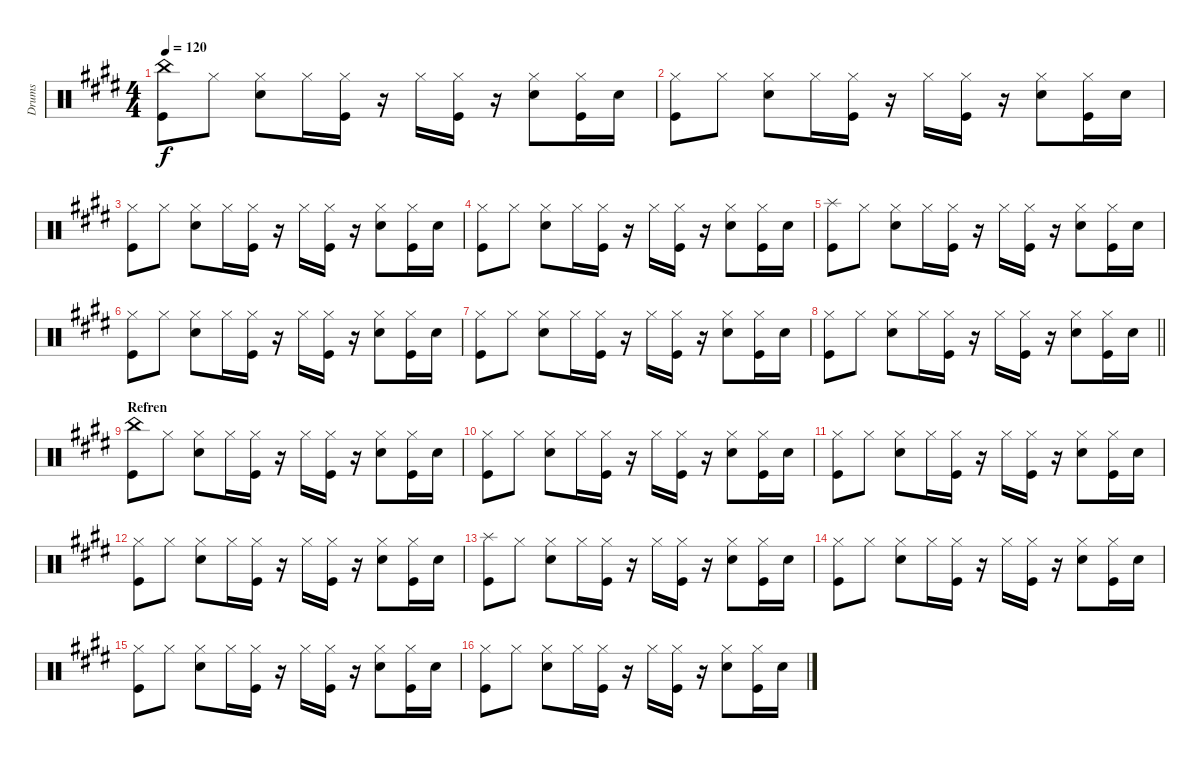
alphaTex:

\track ("Drums" "Drums") {instrument percussion}
\staff {score}
\articulation defaults
\ts (4 4)
\tempo 120
\clef neutral
\ks c#minor
("China (hit)" "Kick (hit)").8{dy f} "Hi-Hat (closed)".8 ("Hi-Hat (closed)" "Snare (hit) 2").8 "Hi-Hat (closed)".16 ("Hi-Hat (closed)" "Kick (hit)").16 r.16 "Hi-Hat (closed)".16 ("Hi-Hat (closed)" "Kick (hit)").16 r.16 ("Hi-Hat (closed)" "Snare (hit) 2").8 ("Hi-Hat (closed)" "Kick (hit)").16 "Snare (hit) 2".16 |
("Hi-Hat (closed)" "Kick (hit)").8 "Hi-Hat (closed)".8 ("Hi-Hat (closed)" "Snare (hit) 2").8 "Hi-Hat (closed)".16 ("Hi-Hat (closed)" "Kick (hit)").16 r.16 "Hi-Hat (closed)".16 ("Hi-Hat (closed)" "Kick (hit)").16 r.16 ("Hi-Hat (closed)" "Snare (hit) 2").8 ("Hi-Hat (closed)" "Kick (hit)").16 "Snare (hit) 2".16 |
\ks e
("Hi-Hat (closed)" "Kick (hit)").8 "Hi-Hat (closed)".8 ("Hi-Hat (closed)" "Snare (hit) 2").8 "Hi-Hat (closed)".16 ("Hi-Hat (closed)" "Kick (hit)").16 r.16 "Hi-Hat (closed)".16 ("Hi-Hat (closed)" "Kick (hit)").16 r.16 ("Hi-Hat (closed)" "Snare (hit) 2").8 ("Hi-Hat (closed)" "Kick (hit)").16 "Snare (hit) 2".16 |
\ks c#minor
("Hi-Hat (closed)" "Kick (hit)").8 "Hi-Hat (closed)".8 ("Hi-Hat (closed)" "Snare (hit) 2").8 "Hi-Hat (closed)".16 ("Hi-Hat (closed)" "Kick (hit)").16 r.16 "Hi-Hat (closed)".16 ("Hi-Hat (closed)" "Kick (hit)").16 r.16 ("Hi-Hat (closed)" "Snare (hit) 2").8 ("Hi-Hat (closed)" "Kick (hit)").16 "Snare (hit) 2".16 |
("Splash (hit)" "Kick (hit)").8 "Hi-Hat (closed)".8 ("Hi-Hat (closed)" "Snare (hit) 2").8 "Hi-Hat (closed)".16 ("Hi-Hat (closed)" "Kick (hit)").16 r.16 "Hi-Hat (closed)".16 ("Hi-Hat (closed)" "Kick (hit)").16 r.16 ("Hi-Hat (closed)" "Snare (hit) 2").8 ("Hi-Hat (closed)" "Kick (hit)").16 "Snare (hit) 2".16 |
("Hi-Hat (closed)" "Kick (hit)").8 "Hi-Hat (closed)".8 ("Hi-Hat (closed)" "Snare (hit) 2").8 "Hi-Hat (closed)".16 ("Hi-Hat (closed)" "Kick (hit)").16 r.16 "Hi-Hat (closed)".16 ("Hi-Hat (closed)" "Kick (hit)").16 r.16 ("Hi-Hat (closed)" "Snare (hit) 2").8 ("Hi-Hat (closed)" "Kick (hit)").16 "Snare (hit) 2".16 |
\ks e
("Hi-Hat (closed)" "Kick (hit)").8 "Hi-Hat (closed)".8 ("Hi-Hat (closed)" "Snare (hit) 2").8 "Hi-Hat (closed)".16 ("Hi-Hat (closed)" "Kick (hit)").16 r.16 "Hi-Hat (closed)".16 ("Hi-Hat (closed)" "Kick (hit)").16 r.16 ("Hi-Hat (closed)" "Snare (hit) 2").8 ("Hi-Hat (closed)" "Kick (hit)").16 "Snare (hit) 2".16 |
\barLineRight lightlight
\ks c#minor
("Hi-Hat (closed)" "Kick (hit)").8 "Hi-Hat (closed)".8 ("Hi-Hat (closed)" "Snare (hit) 2").8 "Hi-Hat (closed)".16 ("Hi-Hat (closed)" "Kick (hit)").16 r.16 "Hi-Hat (closed)".16 ("Hi-Hat (closed)" "Kick (hit)").16 r.16 ("Hi-Hat (closed)" "Snare (hit) 2").8 ("Hi-Hat (closed)" "Kick (hit)").16 "Snare (hit) 2".16 |
\section ("" "Refren")
\ks e
("China (hit)" "Kick (hit)").8 "Hi-Hat (closed)".8 ("Hi-Hat (closed)" "Snare (hit) 2").8 "Hi-Hat (closed)".16 ("Hi-Hat (closed)" "Kick (hit)").16 r.16 "Hi-Hat (closed)".16 ("Hi-Hat (closed)" "Kick (hit)").16 r.16 ("Hi-Hat (closed)" "Snare (hit) 2").8 ("Hi-Hat (closed)" "Kick (hit)").16 "Snare (hit) 2".16 |
\ks c#minor
("Hi-Hat (closed)" "Kick (hit)").8 "Hi-Hat (closed)".8 ("Hi-Hat (closed)" "Snare (hit) 2").8 "Hi-Hat (closed)".16 ("Hi-Hat (closed)" "Kick (hit)").16 r.16 "Hi-Hat (closed)".16 ("Hi-Hat (closed)" "Kick (hit)").16 r.16 ("Hi-Hat (closed)" "Snare (hit) 2").8 ("Hi-Hat (closed)" "Kick (hit)").16 "Snare (hit) 2".16 |
\ks e
("Hi-Hat (closed)" "Kick (hit)").8 "Hi-Hat (closed)".8 ("Hi-Hat (closed)" "Snare (hit) 2").8 "Hi-Hat (closed)".16 ("Hi-Hat (closed)" "Kick (hit)").16 r.16 "Hi-Hat (closed)".16 ("Hi-Hat (closed)" "Kick (hit)").16 r.16 ("Hi-Hat (closed)" "Snare (hit) 2").8 ("Hi-Hat (closed)" "Kick (hit)").16 "Snare (hit) 2".16 |
\ks c#minor
("Hi-Hat (closed)" "Kick (hit)").8 "Hi-Hat (closed)".8 ("Hi-Hat (closed)" "Snare (hit) 2").8 "Hi-Hat (closed)".16 ("Hi-Hat (closed)" "Kick (hit)").16 r.16 "Hi-Hat (closed)".16 ("Hi-Hat (closed)" "Kick (hit)").16 r.16 ("Hi-Hat (closed)" "Snare (hit) 2").8 ("Hi-Hat (closed)" "Kick (hit)").16 "Snare (hit) 2".16 |
\ks e
("Splash (hit)" "Kick (hit)").8 "Hi-Hat (closed)".8 ("Hi-Hat (closed)" "Snare (hit) 2").8 "Hi-Hat (closed)".16 ("Hi-Hat (closed)" "Kick (hit)").16 r.16 "Hi-Hat (closed)".16 ("Hi-Hat (closed)" "Kick (hit)").16 r.16 ("Hi-Hat (closed)" "Snare (hit) 2").8 ("Hi-Hat (closed)" "Kick (hit)").16 "Snare (hit) 2".16 |
\ks c#minor
("Hi-Hat (closed)" "Kick (hit)").8 "Hi-Hat (closed)".8 ("Hi-Hat (closed)" "Snare (hit) 2").8 "Hi-Hat (closed)".16 ("Hi-Hat (closed)" "Kick (hit)").16 r.16 "Hi-Hat (closed)".16 ("Hi-Hat (closed)" "Kick (hit)").16 r.16 ("Hi-Hat (closed)" "Snare (hit) 2").8 ("Hi-Hat (closed)" "Kick (hit)").16 "Snare (hit) 2".16 |
\ks e
("Hi-Hat (closed)" "Kick (hit)").8 "Hi-Hat (closed)".8 ("Hi-Hat (closed)" "Snare (hit) 2").8 "Hi-Hat (closed)".16 ("Hi-Hat (closed)" "Kick (hit)").16 r.16 "Hi-Hat (closed)".16 ("Hi-Hat (closed)" "Kick (hit)").16 r.16 ("Hi-Hat (closed)" "Snare (hit) 2").8 ("Hi-Hat (closed)" "Kick (hit)").16 "Snare (hit) 2".16 |
\ks c#minor
("Hi-Hat (closed)" "Kick (hit)").8 "Hi-Hat (closed)".8 ("Hi-Hat (closed)" "Snare (hit) 2").8 "Hi-Hat (closed)".16 ("Hi-Hat (closed)" "Kick (hit)").16 r.16 "Hi-Hat (closed)".16 ("Hi-Hat (closed)" "Kick (hit)").16 r.16 ("Hi-Hat (closed)" "Snare (hit) 2").8 ("Hi-Hat (closed)" "Kick (hit)").16 "Snare (hit) 2".16
